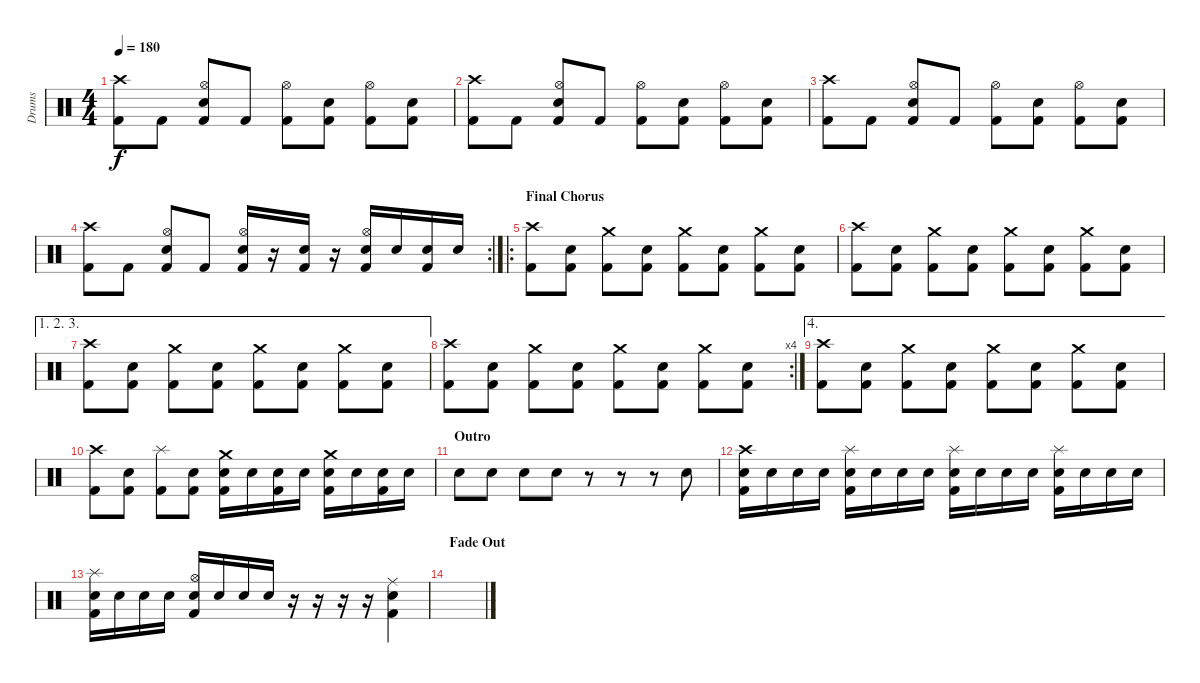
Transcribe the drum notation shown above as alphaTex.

\track ("Drums" "Drums") {instrument percussion}
\staff {score}
\articulation defaults
\ts (4 4)
\tempo 180
\clef neutral
\ks c
("Crash high (hit)" "Kick (hit) 2").8{dy f} "Kick (hit) 2".8 ("Hi-Hat (open)" "Electric Snare (hit)" "Kick (hit) 2").8 "Kick (hit) 2".8 ("Hi-Hat (open)" "Kick (hit) 2").8 ("Electric Snare (hit)" "Kick (hit) 2").8 ("Hi-Hat (open)" "Kick (hit) 2").8 ("Electric Snare (hit)" "Kick (hit) 2").8 |
("Crash high (hit)" "Kick (hit) 2").8 "Kick (hit) 2".8 ("Hi-Hat (open)" "Electric Snare (hit)" "Kick (hit) 2").8 "Kick (hit) 2".8 ("Hi-Hat (open)" "Kick (hit) 2").8 ("Electric Snare (hit)" "Kick (hit) 2").8 ("Hi-Hat (open)" "Kick (hit) 2").8 ("Electric Snare (hit)" "Kick (hit) 2").8 |
("Crash high (hit)" "Kick (hit) 2").8 "Kick (hit) 2".8 ("Hi-Hat (open)" "Electric Snare (hit)" "Kick (hit) 2").8 "Kick (hit) 2".8 ("Hi-Hat (open)" "Kick (hit) 2").8 ("Electric Snare (hit)" "Kick (hit) 2").8 ("Hi-Hat (open)" "Kick (hit) 2").8 ("Electric Snare (hit)" "Kick (hit) 2").8 |
\rc 2
("Crash high (hit)" "Kick (hit) 2").8 "Kick (hit) 2".8 ("Hi-Hat (open)" "Electric Snare (hit)" "Kick (hit) 2").8 "Kick (hit) 2".8 ("Hi-Hat (open)" "Electric Snare (hit)" "Kick (hit) 2").16 r.16 ("Electric Snare (hit)" "Kick (hit) 2").16 r.16 ("Hi-Hat (open)" "Electric Snare (hit)" "Kick (hit) 2").16 "Electric Snare (hit)".16 ("Electric Snare (hit)" "Kick (hit) 2").16 "Electric Snare (hit)".16 |
\ro
\section ("" "Final Chorus")
("Crash high (hit)" "Kick (hit) 2").8 ("Electric Snare (hit)" "Kick (hit) 2").8 ("Crash medium (hit)" "Kick (hit) 2").8 ("Electric Snare (hit)" "Kick (hit) 2").8 ("Crash medium (hit)" "Kick (hit) 2").8 ("Electric Snare (hit)" "Kick (hit) 2").8 ("Crash medium (hit)" "Kick (hit) 2").8 ("Electric Snare (hit)" "Kick (hit) 2").8 |
("Crash high (hit)" "Kick (hit) 2").8 ("Electric Snare (hit)" "Kick (hit) 2").8 ("Crash medium (hit)" "Kick (hit) 2").8 ("Electric Snare (hit)" "Kick (hit) 2").8 ("Crash medium (hit)" "Kick (hit) 2").8 ("Electric Snare (hit)" "Kick (hit) 2").8 ("Crash medium (hit)" "Kick (hit) 2").8 ("Electric Snare (hit)" "Kick (hit) 2").8 |
\ae (1 2 3)
("Crash high (hit)" "Kick (hit) 2").8 ("Electric Snare (hit)" "Kick (hit) 2").8 ("Crash medium (hit)" "Kick (hit) 2").8 ("Electric Snare (hit)" "Kick (hit) 2").8 ("Crash medium (hit)" "Kick (hit) 2").8 ("Electric Snare (hit)" "Kick (hit) 2").8 ("Crash medium (hit)" "Kick (hit) 2").8 ("Electric Snare (hit)" "Kick (hit) 2").8 |
\rc 4
("Crash high (hit)" "Kick (hit) 2").8 ("Electric Snare (hit)" "Kick (hit) 2").8 ("Crash medium (hit)" "Kick (hit) 2").8 ("Electric Snare (hit)" "Kick (hit) 2").8 ("Crash medium (hit)" "Kick (hit) 2").8 ("Electric Snare (hit)" "Kick (hit) 2").8 ("Crash medium (hit)" "Kick (hit) 2").8 ("Electric Snare (hit)" "Kick (hit) 2").8 |
\ae 4
("Crash high (hit)" "Kick (hit) 2").8 ("Electric Snare (hit)" "Kick (hit) 2").8 ("Crash medium (hit)" "Kick (hit) 2").8 ("Electric Snare (hit)" "Kick (hit) 2").8 ("Crash medium (hit)" "Kick (hit) 2").8 ("Electric Snare (hit)" "Kick (hit) 2").8 ("Crash medium (hit)" "Kick (hit) 2").8 ("Electric Snare (hit)" "Kick (hit) 2").8 |
("Crash high (hit)" "Kick (hit) 2").8 ("Electric Snare (hit)" "Kick (hit) 2").8 ("Splash (hit)" "Kick (hit) 2").8 ("Electric Snare (hit)" "Kick (hit) 2").8 ("Crash medium (hit)" "Electric Snare (hit)" "Kick (hit) 2").16 "Electric Snare (hit)".16 ("Electric Snare (hit)" "Kick (hit) 2").16 "Electric Snare (hit)".16 ("Crash medium (hit)" "Electric Snare (hit)" "Kick (hit) 2").16 "Electric Snare (hit)".16 ("Electric Snare (hit)" "Kick (hit) 2").16 "Electric Snare (hit)".16 |
\section ("" "Outro")
"Electric Snare (hit)".8 "Electric Snare (hit)".8 "Electric Snare (hit)".8 "Electric Snare (hit)".8 r.8 r.8 r.8 "Electric Snare (hit)".8 |
("Crash high (hit)" "Kick (hit) 2" "Electric Snare (hit)").16 "Electric Snare (hit)".16 "Electric Snare (hit)".16 "Electric Snare (hit)".16 ("Splash (hit)" "Kick (hit) 2" "Electric Snare (hit)").16 "Electric Snare (hit)".16 "Electric Snare (hit)".16 "Electric Snare (hit)".16 ("Splash (hit)" "Kick (hit) 2" "Electric Snare (hit)").16 "Electric Snare (hit)".16 "Electric Snare (hit)".16 "Electric Snare (hit)".16 ("Splash (hit)" "Kick (hit) 2" "Electric Snare (hit)").16 "Electric Snare (hit)".16 "Electric Snare (hit)".16 "Electric Snare (hit)".16 |
("Splash (hit)" "Kick (hit) 2" "Electric Snare (hit)").16 "Electric Snare (hit)".16 "Electric Snare (hit)".16 "Electric Snare (hit)".16 ("Hi-Hat (open)" "Kick (hit) 2" "Electric Snare (hit)").16 "Electric Snare (hit)".16 "Electric Snare (hit)".16 "Electric Snare (hit)".16 r.16 r.16 r.16 r.16 ("Kick (hit) 2" "Ride (middle)" "Electric Snare (hit)").4 |
\section ("" "Fade Out")
